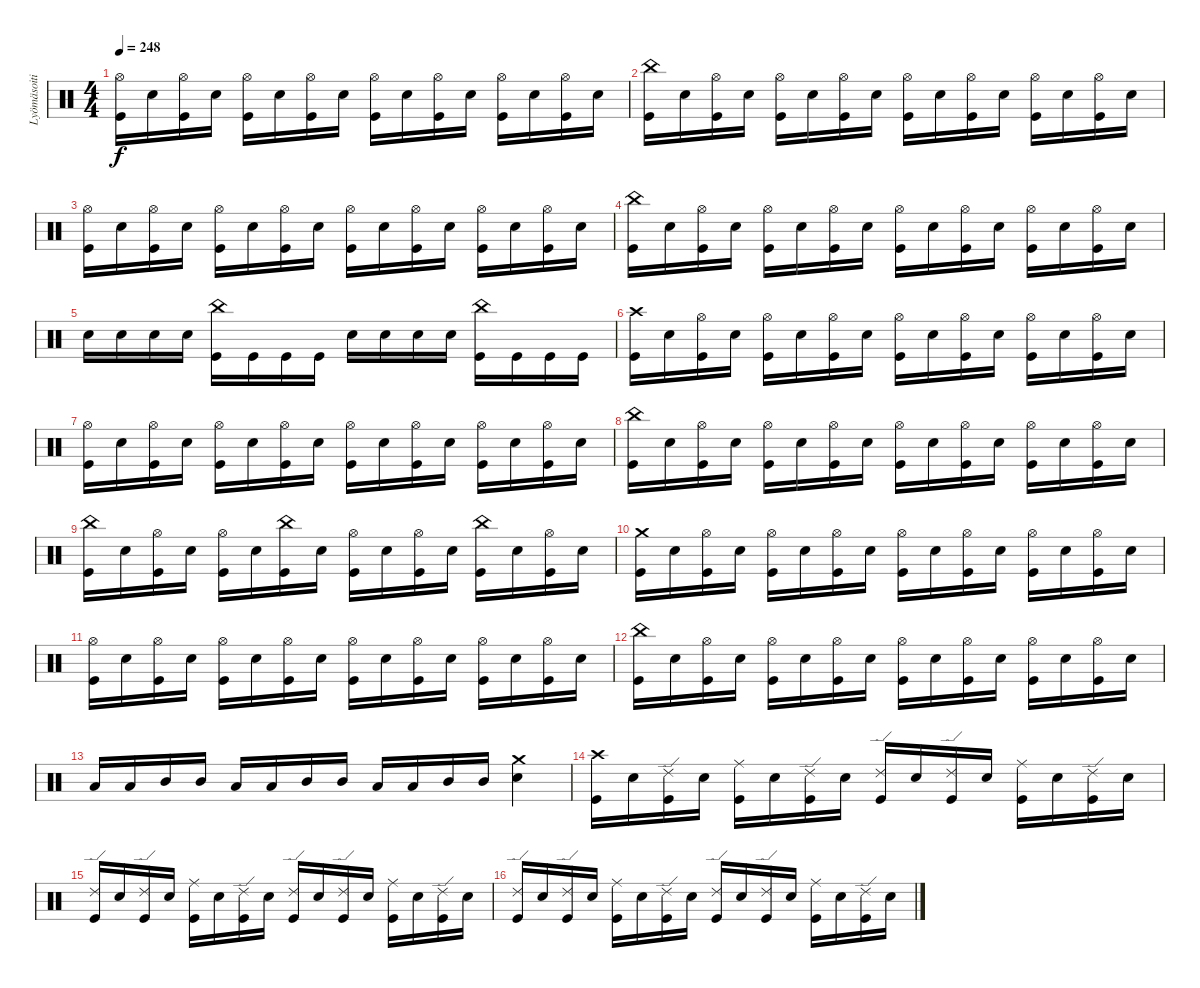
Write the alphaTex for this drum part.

\track ("Lyömäsoitin" "Lyömäsoiti") {instrument percussion}
\staff {score}
\articulation defaults
\ts (4 4)
\tempo 248
\clef neutral
\ks c
("Hi-Hat (open)" "Kick (hit)").16{dy f} "Snare (hit) 2".16 ("Hi-Hat (open)" "Kick (hit)").16 "Snare (hit) 2".16 ("Hi-Hat (open)" "Kick (hit)").16 "Snare (hit) 2".16 ("Hi-Hat (open)" "Kick (hit)").16 "Snare (hit) 2".16 ("Hi-Hat (open)" "Kick (hit)").16 "Snare (hit) 2".16 ("Hi-Hat (open)" "Kick (hit)").16 "Snare (hit) 2".16 ("Hi-Hat (open)" "Kick (hit)").16 "Snare (hit) 2".16 ("Hi-Hat (open)" "Kick (hit)").16 "Snare (hit) 2".16 |
("China (hit)" "Kick (hit)").16 "Snare (hit) 2".16 ("Hi-Hat (open)" "Kick (hit)").16 "Snare (hit) 2".16 ("Hi-Hat (open)" "Kick (hit)").16 "Snare (hit) 2".16 ("Hi-Hat (open)" "Kick (hit)").16 "Snare (hit) 2".16 ("Hi-Hat (open)" "Kick (hit)").16 "Snare (hit) 2".16 ("Hi-Hat (open)" "Kick (hit)").16 "Snare (hit) 2".16 ("Hi-Hat (open)" "Kick (hit)").16 "Snare (hit) 2".16 ("Hi-Hat (open)" "Kick (hit)").16 "Snare (hit) 2".16 |
("Hi-Hat (open)" "Kick (hit)").16 "Snare (hit) 2".16 ("Hi-Hat (open)" "Kick (hit)").16 "Snare (hit) 2".16 ("Hi-Hat (open)" "Kick (hit)").16 "Snare (hit) 2".16 ("Hi-Hat (open)" "Kick (hit)").16 "Snare (hit) 2".16 ("Hi-Hat (open)" "Kick (hit)").16 "Snare (hit) 2".16 ("Hi-Hat (open)" "Kick (hit)").16 "Snare (hit) 2".16 ("Hi-Hat (open)" "Kick (hit)").16 "Snare (hit) 2".16 ("Hi-Hat (open)" "Kick (hit)").16 "Snare (hit) 2".16 |
("China (hit)" "Kick (hit)").16 "Snare (hit) 2".16 ("Hi-Hat (open)" "Kick (hit)").16 "Snare (hit) 2".16 ("Hi-Hat (open)" "Kick (hit)").16 "Snare (hit) 2".16 ("Hi-Hat (open)" "Kick (hit)").16 "Snare (hit) 2".16 ("Hi-Hat (open)" "Kick (hit)").16 "Snare (hit) 2".16 ("Hi-Hat (open)" "Kick (hit)").16 "Snare (hit) 2".16 ("Hi-Hat (open)" "Kick (hit)").16 "Snare (hit) 2".16 ("Hi-Hat (open)" "Kick (hit)").16 "Snare (hit) 2".16 |
"Snare (hit) 2".16 "Snare (hit) 2".16 "Snare (hit) 2".16 "Snare (hit) 2".16 ("China (hit)" "Kick (hit)").16 "Kick (hit)".16 "Kick (hit)".16 "Kick (hit)".16 "Snare (hit) 2".16 "Snare (hit) 2".16 "Snare (hit) 2".16 "Snare (hit) 2".16 ("China (hit)" "Kick (hit)").16 "Kick (hit)".16 "Kick (hit)".16 "Kick (hit)".16 |
("Crash high (hit)" "Kick (hit)").16 "Snare (hit) 2".16 ("Hi-Hat (open)" "Kick (hit)").16 "Snare (hit) 2".16 ("Hi-Hat (open)" "Kick (hit)").16 "Snare (hit) 2".16 ("Hi-Hat (open)" "Kick (hit)").16 "Snare (hit) 2".16 ("Hi-Hat (open)" "Kick (hit)").16 "Snare (hit) 2".16 ("Hi-Hat (open)" "Kick (hit)").16 "Snare (hit) 2".16 ("Hi-Hat (open)" "Kick (hit)").16 "Snare (hit) 2".16 ("Hi-Hat (open)" "Kick (hit)").16 "Snare (hit) 2".16 |
("Hi-Hat (open)" "Kick (hit)").16 "Snare (hit) 2".16 ("Hi-Hat (open)" "Kick (hit)").16 "Snare (hit) 2".16 ("Hi-Hat (open)" "Kick (hit)").16 "Snare (hit) 2".16 ("Hi-Hat (open)" "Kick (hit)").16 "Snare (hit) 2".16 ("Hi-Hat (open)" "Kick (hit)").16 "Snare (hit) 2".16 ("Hi-Hat (open)" "Kick (hit)").16 "Snare (hit) 2".16 ("Hi-Hat (open)" "Kick (hit)").16 "Snare (hit) 2".16 ("Hi-Hat (open)" "Kick (hit)").16 "Snare (hit) 2".16 |
("China (hit)" "Kick (hit)").16 "Snare (hit) 2".16 ("Hi-Hat (open)" "Kick (hit)").16 "Snare (hit) 2".16 ("Hi-Hat (open)" "Kick (hit)").16 "Snare (hit) 2".16 ("Hi-Hat (open)" "Kick (hit)").16 "Snare (hit) 2".16 ("Hi-Hat (open)" "Kick (hit)").16 "Snare (hit) 2".16 ("Hi-Hat (open)" "Kick (hit)").16 "Snare (hit) 2".16 ("Hi-Hat (open)" "Kick (hit)").16 "Snare (hit) 2".16 ("Hi-Hat (open)" "Kick (hit)").16 "Snare (hit) 2".16 |
("China (hit)" "Kick (hit)").16 "Snare (hit) 2".16 ("Hi-Hat (open)" "Kick (hit)").16 "Snare (hit) 2".16 ("Hi-Hat (open)" "Kick (hit)").16 "Snare (hit) 2".16 ("China (hit)" "Kick (hit)").16 "Snare (hit) 2".16 ("Hi-Hat (open)" "Kick (hit)").16 "Snare (hit) 2".16 ("Hi-Hat (open)" "Kick (hit)").16 "Snare (hit) 2".16 ("China (hit)" "Kick (hit)").16 "Snare (hit) 2".16 ("Hi-Hat (open)" "Kick (hit)").16 "Snare (hit) 2".16 |
("Crash medium (hit)" "Kick (hit)").16 "Snare (hit) 2".16 ("Hi-Hat (open)" "Kick (hit)").16 "Snare (hit) 2".16 ("Hi-Hat (open)" "Kick (hit)").16 "Snare (hit) 2".16 ("Hi-Hat (open)" "Kick (hit)").16 "Snare (hit) 2".16 ("Hi-Hat (open)" "Kick (hit)").16 "Snare (hit) 2".16 ("Hi-Hat (open)" "Kick (hit)").16 "Snare (hit) 2".16 ("Hi-Hat (open)" "Kick (hit)").16 "Snare (hit) 2".16 ("Hi-Hat (open)" "Kick (hit)").16 "Snare (hit) 2".16 |
("Hi-Hat (open)" "Kick (hit)").16 "Snare (hit) 2".16 ("Hi-Hat (open)" "Kick (hit)").16 "Snare (hit) 2".16 ("Hi-Hat (open)" "Kick (hit)").16 "Snare (hit) 2".16 ("Hi-Hat (open)" "Kick (hit)").16 "Snare (hit) 2".16 ("Hi-Hat (open)" "Kick (hit)").16 "Snare (hit) 2".16 ("Hi-Hat (open)" "Kick (hit)").16 "Snare (hit) 2".16 ("Hi-Hat (open)" "Kick (hit)").16 "Snare (hit) 2".16 ("Hi-Hat (open)" "Kick (hit)").16 "Snare (hit) 2".16 |
("China (hit)" "Kick (hit)").16 "Snare (hit) 2".16 ("Hi-Hat (open)" "Kick (hit)").16 "Snare (hit) 2".16 ("Hi-Hat (open)" "Kick (hit)").16 "Snare (hit) 2".16 ("Hi-Hat (open)" "Kick (hit)").16 "Snare (hit) 2".16 ("Hi-Hat (open)" "Kick (hit)").16 "Snare (hit) 2".16 ("Hi-Hat (open)" "Kick (hit)").16 "Snare (hit) 2".16 ("Hi-Hat (open)" "Kick (hit)").16 "Snare (hit) 2".16 ("Hi-Hat (open)" "Kick (hit)").16 "Snare (hit) 2".16 |
"Low Tom (hit)".16 "Low Tom (hit)".16 "Mid Tom (hit)".16 "Mid Tom (hit)".16 "Low Tom (hit)".16 "Low Tom (hit)".16 "Mid Tom (hit)".16 "Mid Tom (hit)".16 "Low Tom (hit)".16 "Low Tom (hit)".16 "Mid Tom (hit)".16 "Mid Tom (hit)".16 ("Crash medium (hit)" "Snare (hit) 2").4 |
("Crash high (hit)" "Kick (hit)").16 "Snare (hit) 2".16 ("Ride (edge) 2" "Kick (hit)").16 "Snare (hit) 2".16 ("Ride (middle)" "Kick (hit)").16 "Snare (hit) 2".16 ("Ride (edge) 2" "Kick (hit)").16 "Snare (hit) 2".16 ("Ride (edge) 2" "Kick (hit)").16 "Snare (hit) 2".16 ("Ride (edge) 2" "Kick (hit)").16 "Snare (hit) 2".16 ("Ride (middle)" "Kick (hit)").16 "Snare (hit) 2".16 ("Ride (edge) 2" "Kick (hit)").16 "Snare (hit) 2".16 |
("Ride (edge) 2" "Kick (hit)").16 "Snare (hit) 2".16 ("Ride (edge) 2" "Kick (hit)").16 "Snare (hit) 2".16 ("Ride (middle)" "Kick (hit)").16 "Snare (hit) 2".16 ("Ride (edge) 2" "Kick (hit)").16 "Snare (hit) 2".16 ("Ride (edge) 2" "Kick (hit)").16 "Snare (hit) 2".16 ("Ride (edge) 2" "Kick (hit)").16 "Snare (hit) 2".16 ("Ride (middle)" "Kick (hit)").16 "Snare (hit) 2".16 ("Ride (edge) 2" "Kick (hit)").16 "Snare (hit) 2".16 |
("Ride (edge) 2" "Kick (hit)").16 "Snare (hit) 2".16 ("Ride (edge) 2" "Kick (hit)").16 "Snare (hit) 2".16 ("Ride (middle)" "Kick (hit)").16 "Snare (hit) 2".16 ("Ride (edge) 2" "Kick (hit)").16 "Snare (hit) 2".16 ("Ride (edge) 2" "Kick (hit)").16 "Snare (hit) 2".16 ("Ride (edge) 2" "Kick (hit)").16 "Snare (hit) 2".16 ("Ride (middle)" "Kick (hit)").16 "Snare (hit) 2".16 ("Ride (edge) 2" "Kick (hit)").16 "Snare (hit) 2".16
